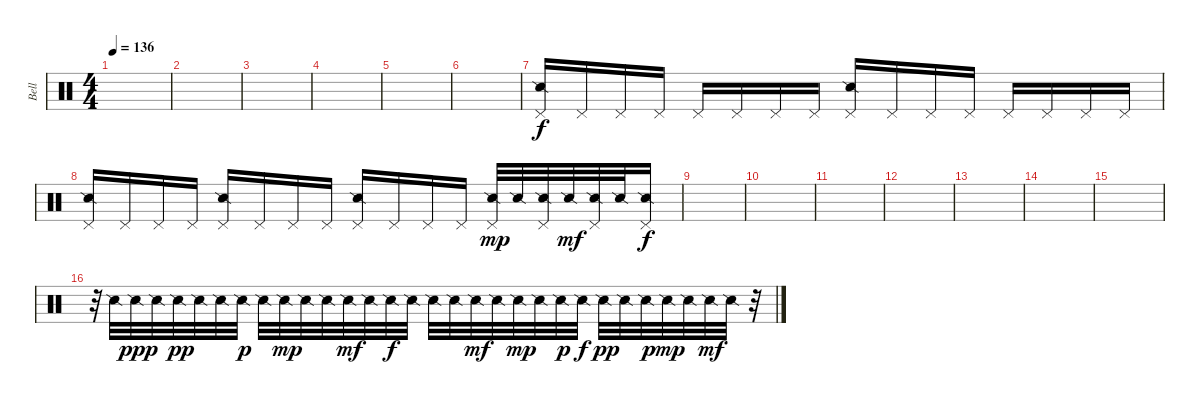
\track ("Bell" "Bell") {instrument percussion}
\staff {score}
\articulation defaults
\ts (4 4)
\tempo 136
\clef neutral
\ks c
|
|
|
|
|
|
("Pedal Hi-Hat (hit)" "Snare (side stick) 2").16{dy f} "Pedal Hi-Hat (hit)".16 "Pedal Hi-Hat (hit)".16 "Pedal Hi-Hat (hit)".16 "Pedal Hi-Hat (hit)".16 "Pedal Hi-Hat (hit)".16 "Pedal Hi-Hat (hit)".16 "Pedal Hi-Hat (hit)".16 ("Pedal Hi-Hat (hit)" "Snare (side stick) 2").16 "Pedal Hi-Hat (hit)".16 "Pedal Hi-Hat (hit)".16 "Pedal Hi-Hat (hit)".16 "Pedal Hi-Hat (hit)".16 "Pedal Hi-Hat (hit)".16 "Pedal Hi-Hat (hit)".16 "Pedal Hi-Hat (hit)".16 |
("Snare (side stick) 2" "Pedal Hi-Hat (hit)").16 "Pedal Hi-Hat (hit)".16 "Pedal Hi-Hat (hit)".16 "Pedal Hi-Hat (hit)".16 ("Pedal Hi-Hat (hit)" "Snare (side stick) 2").16 "Pedal Hi-Hat (hit)".16 "Pedal Hi-Hat (hit)".16 "Pedal Hi-Hat (hit)".16 ("Pedal Hi-Hat (hit)" "Snare (side stick) 2").16 "Pedal Hi-Hat (hit)".16 "Pedal Hi-Hat (hit)".16 "Pedal Hi-Hat (hit)".16 ("Pedal Hi-Hat (hit)" "Snare (side stick) 2").32{dy mp} "Snare (side stick) 2".32 ("Pedal Hi-Hat (hit)" "Snare (side stick) 2").32 "Snare (side stick) 2".32{dy mf} ("Pedal Hi-Hat (hit)" "Snare (side stick) 2").32 "Snare (side stick) 2".32 ("Pedal Hi-Hat (hit)" "Snare (side stick) 2").16{dy f} |
|
|
|
|
|
|
|
r.32 "Snare (side stick) 2".32 "Snare (side stick) 2".32{dy ppp} "Snare (side stick) 2".32 "Snare (side stick) 2".32{dy pp} "Snare (side stick) 2".32 "Snare (side stick) 2".32 "Snare (side stick) 2".32{dy p} "Snare (side stick) 2".32 "Snare (side stick) 2".32{dy mp} "Snare (side stick) 2".32 "Snare (side stick) 2".32 "Snare (side stick) 2".32{dy mf} "Snare (side stick) 2".32 "Snare (side stick) 2".32{dy f} "Snare (side stick) 2".32 "Snare (side stick) 2".32 "Snare (side stick) 2".32 "Snare (side stick) 2".32{dy mf} "Snare (side stick) 2".32 "Snare (side stick) 2".32{dy mp} "Snare (side stick) 2".32 "Snare (side stick) 2".32{dy p} "Snare (side stick) 2".32{dy f} "Snare (side stick) 2".32{dy pp} "Snare (side stick) 2".32 "Snare (side stick) 2".32{dy p} "Snare (side stick) 2".32{dy mp} "Snare (side stick) 2".32 "Snare (side stick) 2".32{dy mf} "Snare (side stick) 2".32 r.32
